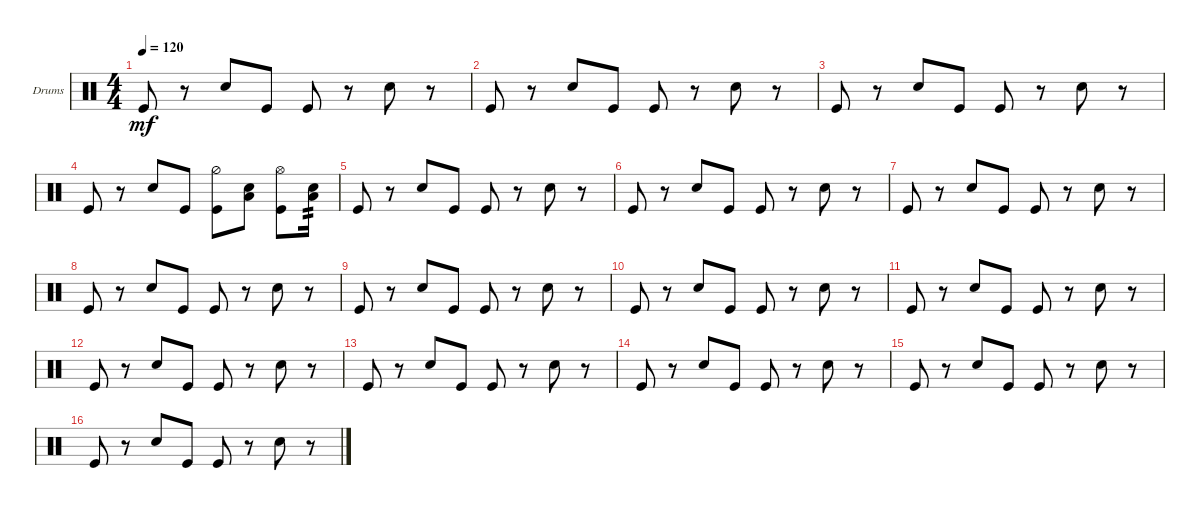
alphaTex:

\defaultSystemsLayout 4
\bracketExtendMode groupsimilarinstruments
\firstSystemTrackNameOrientation horizontal
\otherSystemsTrackNameOrientation horizontal
\track ("Drumkit" "Drums") {instrument percussion}
\staff {score}
\articulation defaults
\ts (4 4)
\tempo 120
\clef neutral
\ks c "Kick (hit)".8{dy mf}
r.8 "Snare (hit) 2".8 "Kick (hit)".8 "Kick (hit)".8 r.8 "Snare (hit) 2".8 r.8 |
"Kick (hit)".8 r.8 "Snare (hit) 2".8 "Kick (hit)".8 "Kick (hit)".8 r.8 "Snare (hit) 2".8 r.8 |
"Kick (hit)".8 r.8 "Snare (hit) 2".8 "Kick (hit)".8 "Kick (hit)".8 r.8 "Snare (hit) 2".8 r.8 |
"Kick (hit)".8 r.8 "Snare (hit) 2".8 "Kick (hit)".8 ("Kick (hit)" "Hi-Hat (half)").8 ("Snare (hit) 2" "Low Tom (hit)").8 ("Kick (hit)" "Hi-Hat (open)").8 ("Snare (hit) 2" "Low Tom (hit)").16{tp 2} |
"Kick (hit)".8 r.8 "Snare (hit) 2".8 "Kick (hit)".8 "Kick (hit)".8 r.8 "Snare (hit) 2".8 r.8 |
"Kick (hit)".8 r.8 "Snare (hit) 2".8 "Kick (hit)".8 "Kick (hit)".8 r.8 "Snare (hit) 2".8 r.8 |
"Kick (hit)".8 r.8 "Snare (hit) 2".8 "Kick (hit)".8 "Kick (hit)".8 r.8 "Snare (hit) 2".8 r.8 |
"Kick (hit)".8 r.8 "Snare (hit) 2".8 "Kick (hit)".8 "Kick (hit)".8 r.8 "Snare (hit) 2".8 r.8 |
"Kick (hit)".8 r.8 "Snare (hit) 2".8 "Kick (hit)".8 "Kick (hit)".8 r.8 "Snare (hit) 2".8 r.8 |
"Kick (hit)".8 r.8 "Snare (hit) 2".8 "Kick (hit)".8 "Kick (hit)".8 r.8 "Snare (hit) 2".8 r.8 |
"Kick (hit)".8 r.8 "Snare (hit) 2".8 "Kick (hit)".8 "Kick (hit)".8 r.8 "Snare (hit) 2".8 r.8 |
"Kick (hit)".8 r.8 "Snare (hit) 2".8 "Kick (hit)".8 "Kick (hit)".8 r.8 "Snare (hit) 2".8 r.8 |
"Kick (hit)".8 r.8 "Snare (hit) 2".8 "Kick (hit)".8 "Kick (hit)".8 r.8 "Snare (hit) 2".8 r.8 |
"Kick (hit)".8 r.8 "Snare (hit) 2".8 "Kick (hit)".8 "Kick (hit)".8 r.8 "Snare (hit) 2".8 r.8 |
"Kick (hit)".8 r.8 "Snare (hit) 2".8 "Kick (hit)".8 "Kick (hit)".8 r.8 "Snare (hit) 2".8 r.8 |
"Kick (hit)".8 r.8 "Snare (hit) 2".8 "Kick (hit)".8 "Kick (hit)".8 r.8 "Snare (hit) 2".8 r.8
